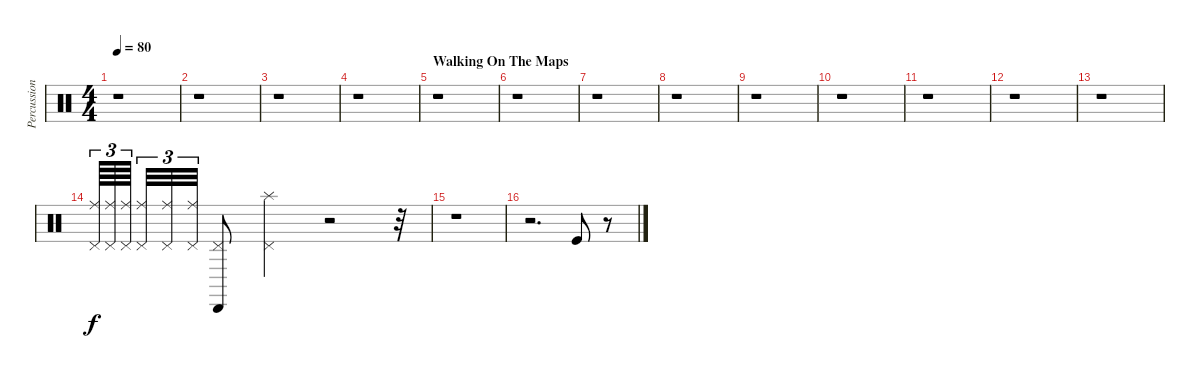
\track ("Percussion" "Percussion") {instrument percussion}
\staff {score}
\articulation defaults
\ts (4 4)
\tempo 80
\clef neutral
\ks c
r.1{dy f} |
r.1 |
r.1 |
r.1 |
\section ("" "Walking On The Maps")
r.1 |
r.1 |
r.1 |
r.1 |
r.1 |
r.1 |
r.1 |
r.1 |
r.1 |
("Pedal Hi-Hat (hit)" "Ride (middle)").64{tu (3 2)} ("Pedal Hi-Hat (hit)" "Ride (middle)").64{tu (3 2)} ("Pedal Hi-Hat (hit)" "Ride (middle)").64{tu (3 2)} ("Pedal Hi-Hat (hit)" "Ride (middle)").32{tu (3 2)} ("Pedal Hi-Hat (hit)" "Ride (middle)").32{tu (3 2)} ("Pedal Hi-Hat (hit)" "Ride (middle)").32{tu (3 2)} ("Pedal Hi-Hat (hit)" "Cabasa (hit)").8 ("Pedal Hi-Hat (hit)" "Splash (hit)").4 r.2 r.32 |
r.1 |
r.2{d} "Kick (hit)".8 r.8
